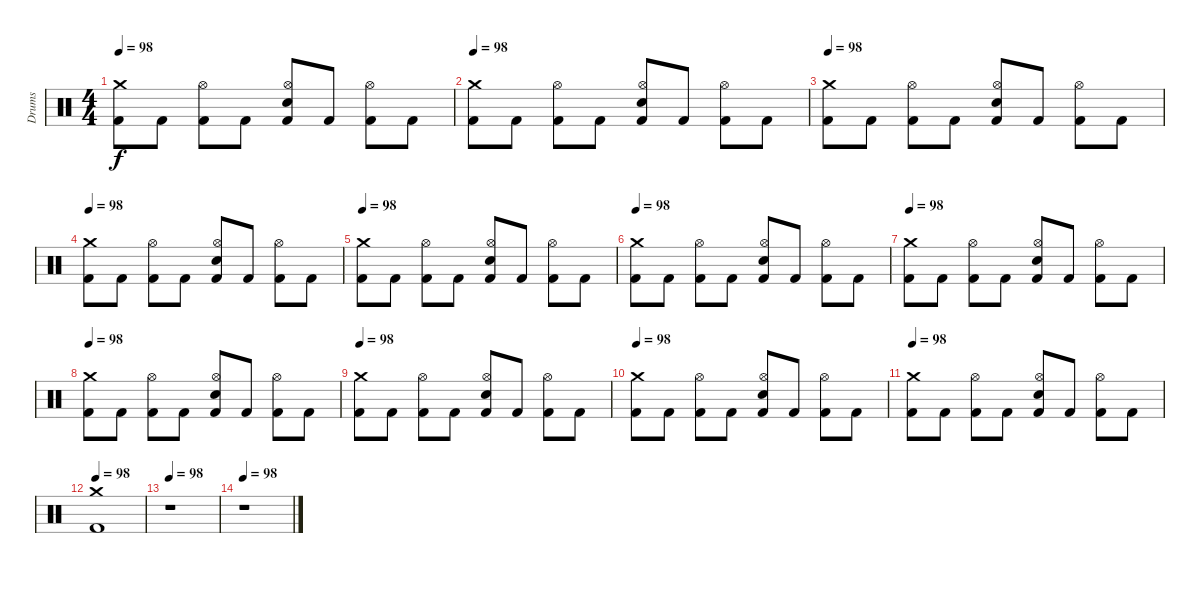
\track ("Drums" "Drums") {instrument percussion}
\staff {score}
\articulation defaults
\ts (4 4)
\tempo 98
\clef neutral
\ks c
("Kick (hit) 2" "Crash medium (hit)").8{dy f} "Kick (hit) 2".8 ("Kick (hit) 2" "Hi-Hat (open)").8 "Kick (hit) 2".8 ("Kick (hit) 2" "Electric Snare (hit)" "Hi-Hat (open)").8 "Kick (hit) 2".8 ("Kick (hit) 2" "Hi-Hat (open)").8 "Kick (hit) 2".8 |
\tempo 98
("Kick (hit) 2" "Crash medium (hit)").8 "Kick (hit) 2".8 ("Kick (hit) 2" "Hi-Hat (open)").8 "Kick (hit) 2".8 ("Kick (hit) 2" "Electric Snare (hit)" "Hi-Hat (open)").8 "Kick (hit) 2".8 ("Kick (hit) 2" "Hi-Hat (open)").8 "Kick (hit) 2".8 |
\tempo 98
("Kick (hit) 2" "Crash medium (hit)").8 "Kick (hit) 2".8 ("Kick (hit) 2" "Hi-Hat (open)").8 "Kick (hit) 2".8 ("Kick (hit) 2" "Electric Snare (hit)" "Hi-Hat (open)").8 "Kick (hit) 2".8 ("Kick (hit) 2" "Hi-Hat (open)").8 "Kick (hit) 2".8 |
\tempo 98
("Kick (hit) 2" "Crash medium (hit)").8 "Kick (hit) 2".8 ("Kick (hit) 2" "Hi-Hat (open)").8 "Kick (hit) 2".8 ("Kick (hit) 2" "Electric Snare (hit)" "Hi-Hat (open)").8 "Kick (hit) 2".8 ("Kick (hit) 2" "Hi-Hat (open)").8 "Kick (hit) 2".8 |
\tempo 98
("Kick (hit) 2" "Crash medium (hit)").8 "Kick (hit) 2".8 ("Kick (hit) 2" "Hi-Hat (open)").8 "Kick (hit) 2".8 ("Kick (hit) 2" "Electric Snare (hit)" "Hi-Hat (open)").8 "Kick (hit) 2".8 ("Kick (hit) 2" "Hi-Hat (open)").8 "Kick (hit) 2".8 |
\tempo 98
("Kick (hit) 2" "Crash medium (hit)").8 "Kick (hit) 2".8 ("Kick (hit) 2" "Hi-Hat (open)").8 "Kick (hit) 2".8 ("Kick (hit) 2" "Electric Snare (hit)" "Hi-Hat (open)").8 "Kick (hit) 2".8 ("Kick (hit) 2" "Hi-Hat (open)").8 "Kick (hit) 2".8 |
\tempo 98
("Kick (hit) 2" "Crash medium (hit)").8 "Kick (hit) 2".8 ("Kick (hit) 2" "Hi-Hat (open)").8 "Kick (hit) 2".8 ("Kick (hit) 2" "Electric Snare (hit)" "Hi-Hat (open)").8 "Kick (hit) 2".8 ("Kick (hit) 2" "Hi-Hat (open)").8 "Kick (hit) 2".8 |
\tempo 98
("Kick (hit) 2" "Crash medium (hit)").8 "Kick (hit) 2".8 ("Kick (hit) 2" "Hi-Hat (open)").8 "Kick (hit) 2".8 ("Kick (hit) 2" "Electric Snare (hit)" "Hi-Hat (open)").8 "Kick (hit) 2".8 ("Kick (hit) 2" "Hi-Hat (open)").8 "Kick (hit) 2".8 |
\tempo 98
("Kick (hit) 2" "Crash medium (hit)").8 "Kick (hit) 2".8 ("Kick (hit) 2" "Hi-Hat (open)").8 "Kick (hit) 2".8 ("Kick (hit) 2" "Electric Snare (hit)" "Hi-Hat (open)").8 "Kick (hit) 2".8 ("Kick (hit) 2" "Hi-Hat (open)").8 "Kick (hit) 2".8 |
\tempo 98
("Kick (hit) 2" "Crash medium (hit)").8 "Kick (hit) 2".8 ("Kick (hit) 2" "Hi-Hat (open)").8 "Kick (hit) 2".8 ("Kick (hit) 2" "Electric Snare (hit)" "Hi-Hat (open)").8 "Kick (hit) 2".8 ("Kick (hit) 2" "Hi-Hat (open)").8 "Kick (hit) 2".8 |
\tempo 98
("Kick (hit) 2" "Crash medium (hit)").8 "Kick (hit) 2".8 ("Kick (hit) 2" "Hi-Hat (open)").8 "Kick (hit) 2".8 ("Kick (hit) 2" "Electric Snare (hit)" "Hi-Hat (open)").8 "Kick (hit) 2".8 ("Kick (hit) 2" "Hi-Hat (open)").8 "Kick (hit) 2".8 |
\tempo 98
("Kick (hit) 2" "Crash medium (hit)").1 |
\tempo 98
r.1 |
\tempo 98
r.1
